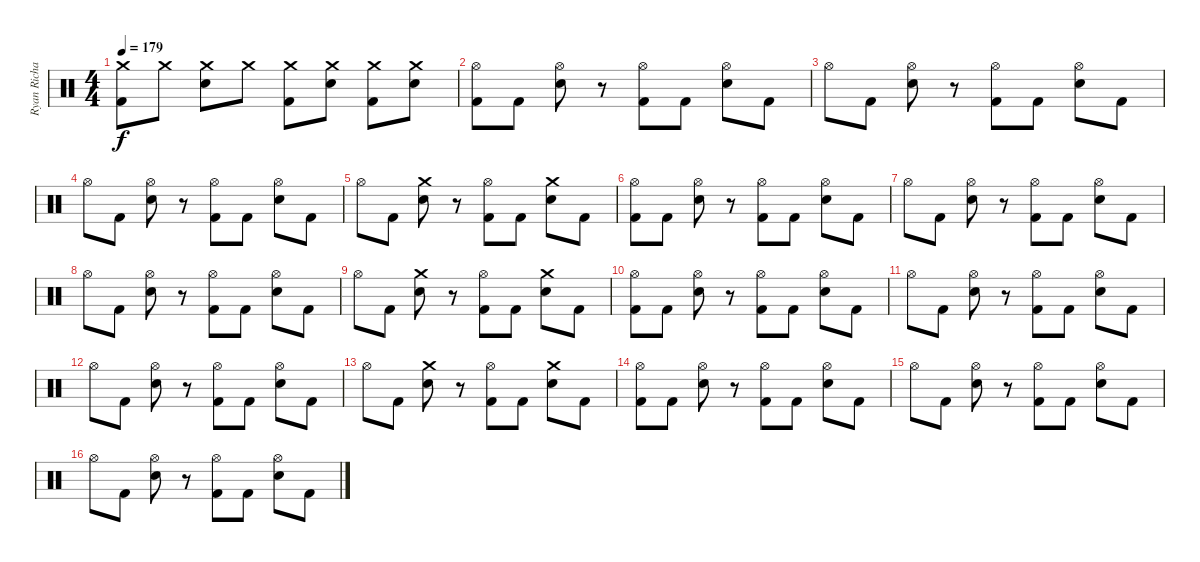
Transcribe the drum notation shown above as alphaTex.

\track ("Ryan Richards" "Ryan Richa") {instrument percussion}
\staff {score}
\articulation defaults
\ts (4 4)
\tempo 179
\clef neutral
\ks c
("Crash medium (hit)" "Kick (hit) 2").8{dy f} "Crash medium (hit)".8 ("Crash medium (hit)" "Snare (hit) 2").8 "Crash medium (hit)".8 ("Crash medium (hit)" "Kick (hit) 2").8 ("Crash medium (hit)" "Snare (hit) 2").8 ("Crash medium (hit)" "Kick (hit) 2").8 ("Crash medium (hit)" "Snare (hit) 2").8 |
("Hi-Hat (open)" "Kick (hit) 2").8 "Kick (hit) 2".8 ("Hi-Hat (open)" "Snare (hit) 2").8 r.8 ("Hi-Hat (open)" "Kick (hit) 2").8 "Kick (hit) 2".8 ("Hi-Hat (open)" "Snare (hit) 2").8 "Kick (hit) 2".8 |
"Hi-Hat (open)".8 "Kick (hit) 2".8 ("Hi-Hat (open)" "Snare (hit) 2").8 r.8 ("Hi-Hat (open)" "Kick (hit) 2").8 "Kick (hit) 2".8 ("Hi-Hat (open)" "Snare (hit) 2").8 "Kick (hit) 2".8 |
"Hi-Hat (open)".8 "Kick (hit) 2".8 ("Hi-Hat (open)" "Snare (hit) 2").8 r.8 ("Hi-Hat (open)" "Kick (hit) 2").8 "Kick (hit) 2".8 ("Hi-Hat (open)" "Snare (hit) 2").8 "Kick (hit) 2".8 |
"Hi-Hat (open)".8 "Kick (hit) 2".8 ("Crash medium (hit)" "Snare (hit) 2").8 r.8 ("Hi-Hat (open)" "Kick (hit) 2").8 "Kick (hit) 2".8 ("Crash medium (hit)" "Snare (hit) 2").8 "Kick (hit) 2".8 |
("Hi-Hat (open)" "Kick (hit) 2").8 "Kick (hit) 2".8 ("Hi-Hat (open)" "Snare (hit) 2").8 r.8 ("Hi-Hat (open)" "Kick (hit) 2").8 "Kick (hit) 2".8 ("Hi-Hat (open)" "Snare (hit) 2").8 "Kick (hit) 2".8 |
"Hi-Hat (open)".8 "Kick (hit) 2".8 ("Hi-Hat (open)" "Snare (hit) 2").8 r.8 ("Hi-Hat (open)" "Kick (hit) 2").8 "Kick (hit) 2".8 ("Hi-Hat (open)" "Snare (hit) 2").8 "Kick (hit) 2".8 |
"Hi-Hat (open)".8 "Kick (hit) 2".8 ("Hi-Hat (open)" "Snare (hit) 2").8 r.8 ("Hi-Hat (open)" "Kick (hit) 2").8 "Kick (hit) 2".8 ("Hi-Hat (open)" "Snare (hit) 2").8 "Kick (hit) 2".8 |
"Hi-Hat (open)".8 "Kick (hit) 2".8 ("Crash medium (hit)" "Snare (hit) 2").8 r.8 ("Hi-Hat (open)" "Kick (hit) 2").8 "Kick (hit) 2".8 ("Crash medium (hit)" "Snare (hit) 2").8 "Kick (hit) 2".8 |
("Hi-Hat (open)" "Kick (hit) 2").8 "Kick (hit) 2".8 ("Hi-Hat (open)" "Snare (hit) 2").8 r.8 ("Hi-Hat (open)" "Kick (hit) 2").8 "Kick (hit) 2".8 ("Hi-Hat (open)" "Snare (hit) 2").8 "Kick (hit) 2".8 |
"Hi-Hat (open)".8 "Kick (hit) 2".8 ("Hi-Hat (open)" "Snare (hit) 2").8 r.8 ("Hi-Hat (open)" "Kick (hit) 2").8 "Kick (hit) 2".8 ("Hi-Hat (open)" "Snare (hit) 2").8 "Kick (hit) 2".8 |
"Hi-Hat (open)".8 "Kick (hit) 2".8 ("Hi-Hat (open)" "Snare (hit) 2").8 r.8 ("Hi-Hat (open)" "Kick (hit) 2").8 "Kick (hit) 2".8 ("Hi-Hat (open)" "Snare (hit) 2").8 "Kick (hit) 2".8 |
"Hi-Hat (open)".8 "Kick (hit) 2".8 ("Crash medium (hit)" "Snare (hit) 2").8 r.8 ("Hi-Hat (open)" "Kick (hit) 2").8 "Kick (hit) 2".8 ("Crash medium (hit)" "Snare (hit) 2").8 "Kick (hit) 2".8 |
("Hi-Hat (open)" "Kick (hit) 2").8 "Kick (hit) 2".8 ("Hi-Hat (open)" "Snare (hit) 2").8 r.8 ("Hi-Hat (open)" "Kick (hit) 2").8 "Kick (hit) 2".8 ("Hi-Hat (open)" "Snare (hit) 2").8 "Kick (hit) 2".8 |
"Hi-Hat (open)".8 "Kick (hit) 2".8 ("Hi-Hat (open)" "Snare (hit) 2").8 r.8 ("Hi-Hat (open)" "Kick (hit) 2").8 "Kick (hit) 2".8 ("Hi-Hat (open)" "Snare (hit) 2").8 "Kick (hit) 2".8 |
"Hi-Hat (open)".8 "Kick (hit) 2".8 ("Hi-Hat (open)" "Snare (hit) 2").8 r.8 ("Hi-Hat (open)" "Kick (hit) 2").8 "Kick (hit) 2".8 ("Hi-Hat (open)" "Snare (hit) 2").8 "Kick (hit) 2".8
